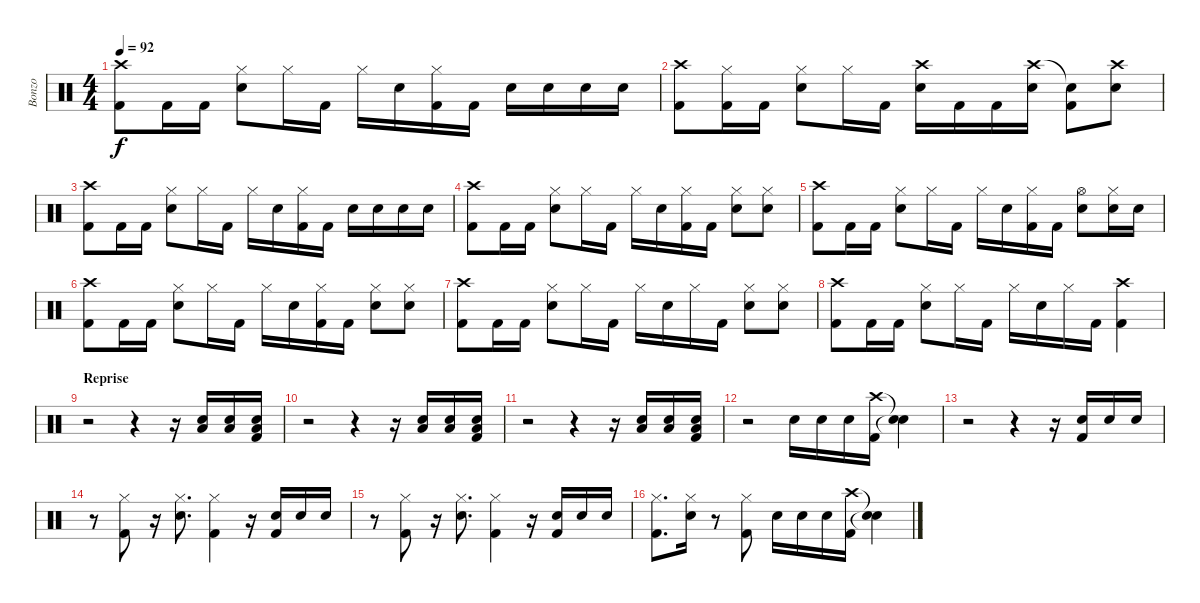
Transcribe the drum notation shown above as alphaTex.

\track ("Bonzo" "Bonzo") {instrument percussion}
\staff {score}
\articulation defaults
\ts (4 4)
\tempo 92
\clef neutral
\ks c
("Crash high (hit)" "Kick (hit) 2").8{dy f} "Kick (hit) 2".16 "Kick (hit) 2".16 ("Hi-Hat (closed)" "Snare (hit) 2").8 "Hi-Hat (closed)".16 "Kick (hit) 2".16 "Hi-Hat (closed)".16 "Snare (hit) 2".16 ("Hi-Hat (closed)" "Kick (hit) 2").16 "Kick (hit) 2".16 "Snare (hit) 2".16 "Snare (hit) 2".16 "Snare (hit) 2".16 "Snare (hit) 2".16 |
("Crash high (hit)" "Kick (hit) 2").8 ("Hi-Hat (closed)" "Kick (hit) 2").16 "Kick (hit) 2".16 ("Hi-Hat (closed)" "Snare (hit) 2").8 "Hi-Hat (closed)".16 "Kick (hit) 2".16 ("Crash high (hit)" "Snare (hit) 2").16 "Kick (hit) 2".16 "Kick (hit) 2".16 ("Crash high (hit)" "Snare (hit) 2").16 ("Snare (hit)"{t} "Kick (hit) 2").8 ("Crash high (hit)" "Snare (hit) 2").8 |
("Crash high (hit)" "Kick (hit) 2").8 "Kick (hit) 2".16 "Kick (hit) 2".16 ("Hi-Hat (closed)" "Snare (hit) 2").8 "Hi-Hat (closed)".16 "Kick (hit) 2".16 "Hi-Hat (closed)".16 "Snare (hit) 2".16 ("Hi-Hat (closed)" "Kick (hit) 2").16 "Kick (hit) 2".16 "Snare (hit) 2".16 "Snare (hit) 2".16 "Snare (hit) 2".16 "Snare (hit) 2".16 |
("Crash high (hit)" "Kick (hit) 2").8 "Kick (hit) 2".16 "Kick (hit) 2".16 ("Hi-Hat (closed)" "Snare (hit) 2").8 "Hi-Hat (closed)".16 "Kick (hit) 2".16 "Hi-Hat (closed)".16 "Snare (hit) 2".16 ("Hi-Hat (closed)" "Kick (hit) 2").16 "Kick (hit) 2".16 ("Hi-Hat (closed)" "Snare (hit) 2").8 ("Hi-Hat (closed)" "Snare (hit) 2").8 |
("Crash high (hit)" "Kick (hit) 2").8 "Kick (hit) 2".16 "Kick (hit) 2".16 ("Hi-Hat (closed)" "Snare (hit) 2").8 "Hi-Hat (closed)".16 "Kick (hit) 2".16 "Hi-Hat (closed)".16 "Snare (hit) 2".16 ("Hi-Hat (closed)" "Kick (hit) 2").16 "Kick (hit) 2".16 ("Hi-Hat (open)" "Snare (hit) 2").8 ("Hi-Hat (closed)" "Snare (hit) 2").16 "Snare (hit) 2".16 |
("Crash high (hit)" "Kick (hit) 2").8 "Kick (hit) 2".16 "Kick (hit) 2".16 ("Hi-Hat (closed)" "Snare (hit) 2").8 "Hi-Hat (closed)".16 "Kick (hit) 2".16 "Hi-Hat (closed)".16 "Snare (hit) 2".16 ("Hi-Hat (closed)" "Kick (hit) 2").16 "Kick (hit) 2".16 ("Hi-Hat (closed)" "Snare (hit) 2").8 ("Hi-Hat (closed)" "Snare (hit) 2").8 |
("Crash high (hit)" "Kick (hit) 2").8 "Kick (hit) 2".16 "Kick (hit) 2".16 ("Hi-Hat (closed)" "Snare (hit) 2").8 "Hi-Hat (closed)".16 "Kick (hit) 2".16 "Hi-Hat (closed)".16 "Snare (hit) 2".16 "Hi-Hat (closed)".16 "Kick (hit) 2".16 ("Hi-Hat (closed)" "Snare (hit) 2").8 ("Hi-Hat (closed)" "Snare (hit) 2").8 |
("Crash high (hit)" "Kick (hit) 2").8 "Kick (hit) 2".16 "Kick (hit) 2".16 ("Hi-Hat (closed)" "Snare (hit) 2").8 "Hi-Hat (closed)".16 "Kick (hit) 2".16 "Hi-Hat (closed)".16 "Snare (hit) 2".16 "Hi-Hat (closed)".16 "Kick (hit) 2".16 ("Crash high (hit)" "Kick (hit) 2").4 |
\section ("" "Reprise")
r.2 r.4 r.16 ("Snare (hit) 2" "Low Tom (hit)").16 ("Snare (hit) 2" "Low Tom (hit)").16 ("Snare (hit) 2" "Low Tom (hit)" "Kick (hit) 2").16 |
r.2 r.4 r.16 ("Snare (hit) 2" "Low Tom (hit)").16 ("Snare (hit) 2" "Low Tom (hit)").16 ("Snare (hit) 2" "Low Tom (hit)" "Kick (hit) 2").16 |
r.2 r.4 r.16 ("Snare (hit) 2" "Low Tom (hit)").16 ("Snare (hit) 2" "Low Tom (hit)").16 ("Snare (hit) 2" "Low Tom (hit)" "Kick (hit) 2").16 |
r.2 "Snare (hit) 2".16 "Snare (hit) 2".16 "Snare (hit) 2".16 ("Crash high (hit)" "Kick (hit) 2").16 ("Snare (hit)"{t} "Snare (hit)"{t}).4 |
r.2 r.4 r.16 ("Snare (hit) 2" "Kick (hit) 2").16 "Snare (hit) 2".16 "Snare (hit) 2".16 |
r.8 ("Hi-Hat (closed)" "Kick (hit) 2").8 r.16 ("Hi-Hat (closed)" "Snare (hit) 2").8{d} ("Hi-Hat (closed)" "Kick (hit) 2").4 r.16 ("Snare (hit) 2" "Kick (hit) 2").16 "Snare (hit) 2".16 "Snare (hit) 2".16 |
r.8 ("Hi-Hat (closed)" "Kick (hit) 2").8 r.16 ("Hi-Hat (closed)" "Snare (hit) 2").8{d} ("Hi-Hat (closed)" "Kick (hit) 2").4 r.16 ("Snare (hit) 2" "Kick (hit) 2").16 "Snare (hit) 2".16 "Snare (hit) 2".16 |
("Hi-Hat (closed)" "Kick (hit) 2").8{d} ("Hi-Hat (closed)" "Snare (hit) 2").16 r.8 ("Hi-Hat (closed)" "Kick (hit) 2").8 "Snare (hit) 2".16 "Snare (hit) 2".16 "Snare (hit) 2".16 ("Crash high (hit)" "Kick (hit) 2").16 ("Snare (hit)"{t} "Snare (hit)"{t}).4
